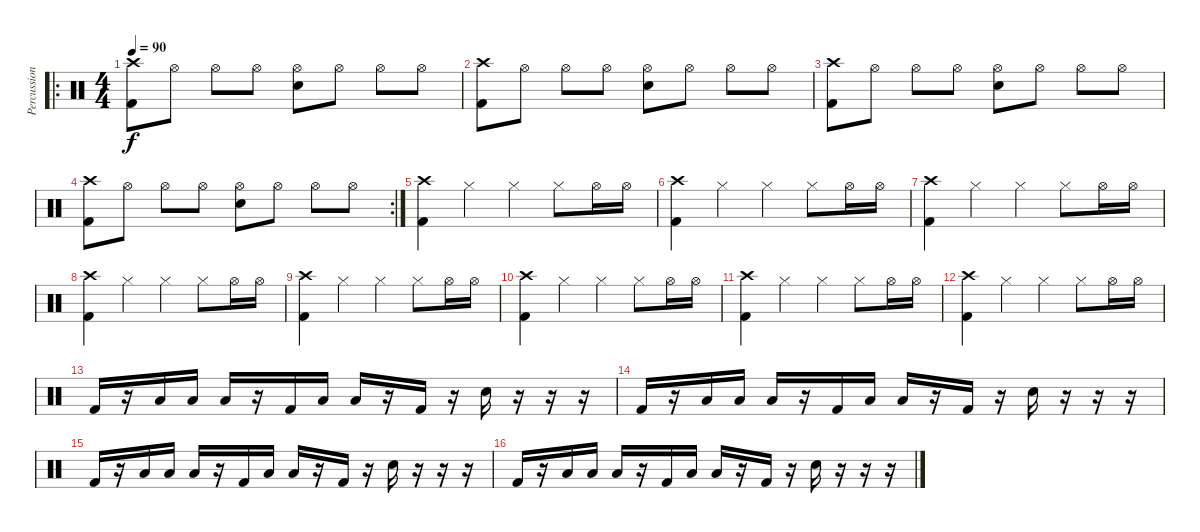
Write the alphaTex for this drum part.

\track ("Percussion" "Percussion") {instrument percussion}
\staff {score}
\articulation defaults
\ro
\ts (4 4)
\tempo 90
\clef neutral
\ks c
("Crash high (hit)" "Kick (hit) 2").8{dy f} "Hi-Hat (open)".8 "Hi-Hat (open)".8 "Hi-Hat (open)".8 ("Hi-Hat (open)" "Snare (hit) 2").8 "Hi-Hat (open)".8 "Hi-Hat (open)".8 "Hi-Hat (open)".8 |
("Crash high (hit)" "Kick (hit) 2").8 "Hi-Hat (open)".8 "Hi-Hat (open)".8 "Hi-Hat (open)".8 ("Hi-Hat (open)" "Snare (hit) 2").8 "Hi-Hat (open)".8 "Hi-Hat (open)".8 "Hi-Hat (open)".8 |
("Crash high (hit)" "Kick (hit) 2").8 "Hi-Hat (open)".8 "Hi-Hat (open)".8 "Hi-Hat (open)".8 ("Hi-Hat (open)" "Snare (hit) 2").8 "Hi-Hat (open)".8 "Hi-Hat (open)".8 "Hi-Hat (open)".8 |
\rc 2
("Crash high (hit)" "Kick (hit) 2").8 "Hi-Hat (open)".8 "Hi-Hat (open)".8 "Hi-Hat (open)".8 ("Hi-Hat (open)" "Snare (hit) 2").8 "Hi-Hat (open)".8 "Hi-Hat (open)".8 "Hi-Hat (open)".8 |
("Crash high (hit)" "Kick (hit) 2").4 "Hi-Hat (closed)".4 "Hi-Hat (closed)".4 "Hi-Hat (closed)".8 "Hi-Hat (open)".16 "Hi-Hat (open)".16 |
("Crash high (hit)" "Kick (hit) 2").4 "Hi-Hat (closed)".4 "Hi-Hat (closed)".4 "Hi-Hat (closed)".8 "Hi-Hat (open)".16 "Hi-Hat (open)".16 |
("Crash high (hit)" "Kick (hit) 2").4 "Hi-Hat (closed)".4 "Hi-Hat (closed)".4 "Hi-Hat (closed)".8 "Hi-Hat (open)".16 "Hi-Hat (open)".16 |
("Crash high (hit)" "Kick (hit) 2").4 "Hi-Hat (closed)".4 "Hi-Hat (closed)".4 "Hi-Hat (closed)".8 "Hi-Hat (open)".16 "Hi-Hat (open)".16 |
("Crash high (hit)" "Kick (hit) 2").4 "Hi-Hat (closed)".4 "Hi-Hat (closed)".4 "Hi-Hat (closed)".8 "Hi-Hat (open)".16 "Hi-Hat (open)".16 |
("Crash high (hit)" "Kick (hit) 2").4 "Hi-Hat (closed)".4 "Hi-Hat (closed)".4 "Hi-Hat (closed)".8 "Hi-Hat (open)".16 "Hi-Hat (open)".16 |
("Crash high (hit)" "Kick (hit) 2").4 "Hi-Hat (closed)".4 "Hi-Hat (closed)".4 "Hi-Hat (closed)".8 "Hi-Hat (open)".16 "Hi-Hat (open)".16 |
("Crash high (hit)" "Kick (hit) 2").4 "Hi-Hat (closed)".4 "Hi-Hat (closed)".4 "Hi-Hat (closed)".8 "Hi-Hat (open)".16 "Hi-Hat (open)".16 |
"Kick (hit) 2".16 r.16 "Low Floor Tom (hit)".16 "Low Floor Tom (hit)".16 "Low Floor Tom (hit)".16 r.16 "Kick (hit) 2".16 "Low Floor Tom (hit)".16 "Low Floor Tom (hit)".16 r.16 "Kick (hit) 2".16 r.16 "Snare (hit) 2".16 r.16 r.16 r.16 |
"Kick (hit) 2".16 r.16 "Low Floor Tom (hit)".16 "Low Floor Tom (hit)".16 "Low Floor Tom (hit)".16 r.16 "Kick (hit) 2".16 "Low Floor Tom (hit)".16 "Low Floor Tom (hit)".16 r.16 "Kick (hit) 2".16 r.16 "Snare (hit) 2".16 r.16 r.16 r.16 |
"Kick (hit) 2".16 r.16 "Low Floor Tom (hit)".16 "Low Floor Tom (hit)".16 "Low Floor Tom (hit)".16 r.16 "Kick (hit) 2".16 "Low Floor Tom (hit)".16 "Low Floor Tom (hit)".16 r.16 "Kick (hit) 2".16 r.16 "Snare (hit) 2".16 r.16 r.16 r.16 |
"Kick (hit) 2".16 r.16 "Low Floor Tom (hit)".16 "Low Floor Tom (hit)".16 "Low Floor Tom (hit)".16 r.16 "Kick (hit) 2".16 "Low Floor Tom (hit)".16 "Low Floor Tom (hit)".16 r.16 "Kick (hit) 2".16 r.16 "Snare (hit) 2".16 r.16 r.16 r.16
